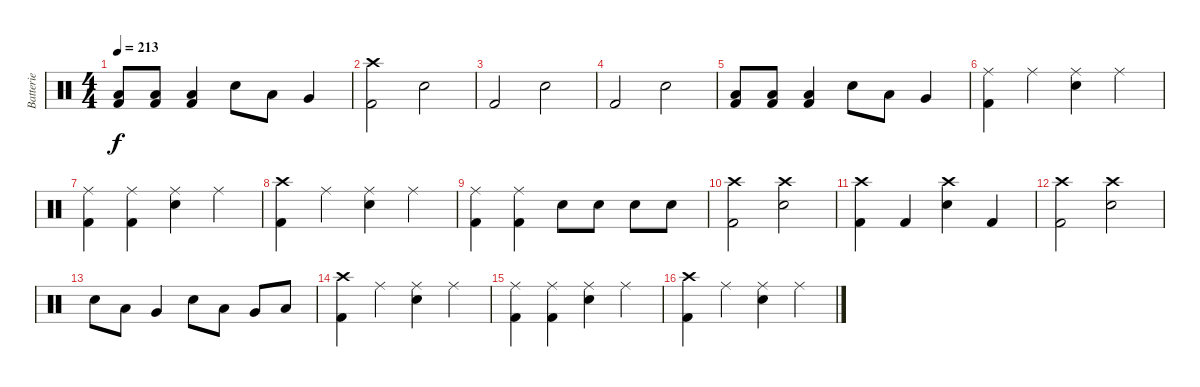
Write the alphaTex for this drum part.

\track ("Batterie" "Batterie") {instrument percussion}
\staff {score}
\articulation defaults
\ts (4 4)
\tempo 213
\clef neutral
\ks c
("Low Floor Tom (hit)" "Kick (hit) 2").8{dy f} ("Low Floor Tom (hit)" "Kick (hit) 2").8 ("Low Floor Tom (hit)" "Kick (hit) 2").4 "Electric Snare (hit)".8 "Low Tom (hit)".8 "Very Low Tom (hit)".4 |
("Crash high (hit)" "Kick (hit) 2").2 "Electric Snare (hit)".2 |
"Kick (hit) 2".2 "Electric Snare (hit)".2 |
"Kick (hit) 2".2 "Electric Snare (hit)".2 |
("Low Floor Tom (hit)" "Kick (hit) 2").8 ("Low Floor Tom (hit)" "Kick (hit) 2").8 ("Low Floor Tom (hit)" "Kick (hit) 2").4 "Electric Snare (hit)".8 "Low Tom (hit)".8 "Very Low Tom (hit)".4 |
("Ride (middle)" "Kick (hit) 2").4 "Ride (middle)".4 ("Electric Snare (hit)" "Ride (middle)").4 "Ride (middle)".4 |
("Kick (hit) 2" "Ride (middle)").4 ("Ride (middle)" "Kick (hit) 2").4 ("Electric Snare (hit)" "Ride (middle)").4 "Ride (middle)".4 |
("Kick (hit) 2" "Crash high (hit)").4 "Ride (middle)".4 ("Electric Snare (hit)" "Ride (middle)").4 "Ride (middle)".4 |
("Ride (middle)" "Kick (hit) 2").4 ("Ride (middle)" "Kick (hit) 2").4 "Electric Snare (hit)".8 "Electric Snare (hit)".8 "Electric Snare (hit)".8 "Electric Snare (hit)".8 |
("Crash high (hit)" "Kick (hit) 2").2 ("Crash high (hit)" "Electric Snare (hit)").2 |
("Crash high (hit)" "Kick (hit) 2").4 "Kick (hit) 2".4 ("Crash high (hit)" "Electric Snare (hit)").4 "Kick (hit) 2".4 |
("Crash high (hit)" "Kick (hit) 2").2 ("Crash high (hit)" "Electric Snare (hit)").2 |
"Electric Snare (hit)".8 "Low Tom (hit)".8 "Very Low Tom (hit)".4 "Electric Snare (hit)".8 "Low Tom (hit)".8 "Very Low Tom (hit)".8 "Low Floor Tom (hit)".8 |
("Crash high (hit)" "Kick (hit) 2").4 "Ride (middle)".4 ("Electric Snare (hit)" "Ride (middle)").4 "Ride (middle)".4 |
("Kick (hit) 2" "Ride (middle)").4 ("Ride (middle)" "Kick (hit) 2").4 ("Electric Snare (hit)" "Ride (middle)").4 "Ride (middle)".4 |
("Kick (hit) 2" "Crash high (hit)").4 "Ride (middle)".4 ("Electric Snare (hit)" "Ride (middle)").4 "Ride (middle)".4
